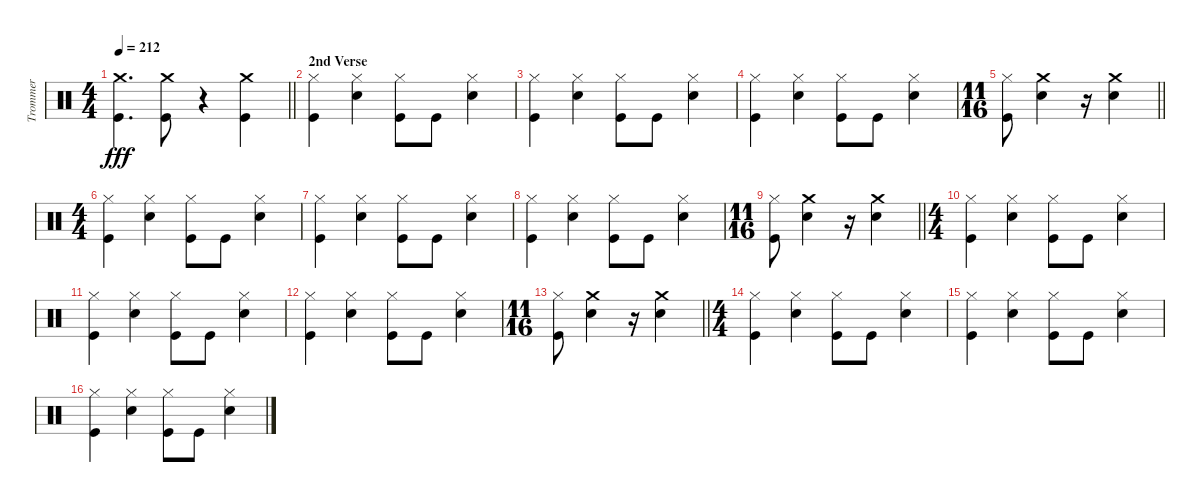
\track ("Trommer" "Trommer") {instrument percussion}
\staff {score}
\articulation defaults
\ts (4 4)
\tempo 212
\clef neutral
\barLineRight lightlight
\ks c
("Crash medium (hit)" "Kick (hit)").4{d dy fff} ("Crash medium (hit)" "Kick (hit)").8 r.4 ("Kick (hit)" "Crash medium (hit)").4 |
\section ("" "2nd Verse")
("Hi-Hat (closed)" "Kick (hit)").4 ("Snare (hit) 2" "Hi-Hat (closed)").4 ("Kick (hit)" "Hi-Hat (closed)").8 "Kick (hit)".8 ("Snare (hit) 2" "Hi-Hat (closed)").4 |
("Kick (hit)" "Hi-Hat (closed)").4 ("Snare (hit) 2" "Hi-Hat (closed)").4 ("Kick (hit)" "Hi-Hat (closed)").8 "Kick (hit)".8 ("Hi-Hat (closed)" "Snare (hit) 2").4 |
("Kick (hit)" "Hi-Hat (closed)").4 ("Snare (hit) 2" "Hi-Hat (closed)").4 ("Kick (hit)" "Hi-Hat (closed)").8 "Kick (hit)".8 ("Snare (hit) 2" "Hi-Hat (closed)").4 |
\ts (11 16)
\barLineRight lightlight
("Kick (hit)" "Hi-Hat (closed)").8 ("Snare (hit) 2" "Crash medium (hit)").4 r.16 ("Crash medium (hit)" "Snare (hit) 2").4 |
\ts (4 4)
("Kick (hit)" "Hi-Hat (closed)").4 ("Snare (hit) 2" "Hi-Hat (closed)").4 ("Kick (hit)" "Hi-Hat (closed)").8 "Kick (hit)".8 ("Snare (hit) 2" "Hi-Hat (closed)").4 |
("Hi-Hat (closed)" "Kick (hit)").4 ("Snare (hit) 2" "Hi-Hat (closed)").4 ("Kick (hit)" "Hi-Hat (closed)").8 "Kick (hit)".8 ("Snare (hit) 2" "Hi-Hat (closed)").4 |
("Kick (hit)" "Hi-Hat (closed)").4 ("Hi-Hat (closed)" "Snare (hit) 2").4 ("Kick (hit)" "Hi-Hat (closed)").8 "Kick (hit)".8 ("Snare (hit) 2" "Hi-Hat (closed)").4 |
\ts (11 16)
\barLineRight lightlight
("Kick (hit)" "Hi-Hat (closed)").8 ("Crash medium (hit)" "Snare (hit) 2").4 r.16 ("Crash medium (hit)" "Snare (hit) 2").4 |
\ts (4 4)
("Kick (hit)" "Hi-Hat (closed)").4 ("Hi-Hat (closed)" "Snare (hit) 2").4 ("Kick (hit)" "Hi-Hat (closed)").8 "Kick (hit)".8 ("Snare (hit) 2" "Hi-Hat (closed)").4 |
("Kick (hit)" "Hi-Hat (closed)").4 ("Snare (hit) 2" "Hi-Hat (closed)").4 ("Kick (hit)" "Hi-Hat (closed)").8 "Kick (hit)".8 ("Hi-Hat (closed)" "Snare (hit) 2").4 |
("Kick (hit)" "Hi-Hat (closed)").4 ("Snare (hit) 2" "Hi-Hat (closed)").4 ("Kick (hit)" "Hi-Hat (closed)").8 "Kick (hit)".8 ("Snare (hit) 2" "Hi-Hat (closed)").4 |
\ts (11 16)
\barLineRight lightlight
("Kick (hit)" "Hi-Hat (closed)").8 ("Snare (hit) 2" "Crash medium (hit)").4 r.16 ("Crash medium (hit)" "Snare (hit) 2").4 |
\ts (4 4)
("Kick (hit)" "Hi-Hat (closed)").4 ("Snare (hit) 2" "Hi-Hat (closed)").4 ("Kick (hit)" "Hi-Hat (closed)").8 "Kick (hit)".8 ("Hi-Hat (closed)" "Snare (hit) 2").4 |
("Kick (hit)" "Hi-Hat (closed)").4 ("Snare (hit) 2" "Hi-Hat (closed)").4 ("Kick (hit)" "Hi-Hat (closed)").8 "Kick (hit)".8 ("Snare (hit) 2" "Hi-Hat (closed)").4 |
("Kick (hit)" "Hi-Hat (closed)").4 ("Snare (hit) 2" "Hi-Hat (closed)").4 ("Hi-Hat (closed)" "Kick (hit)").8 "Kick (hit)".8 ("Snare (hit) 2" "Hi-Hat (closed)").4
